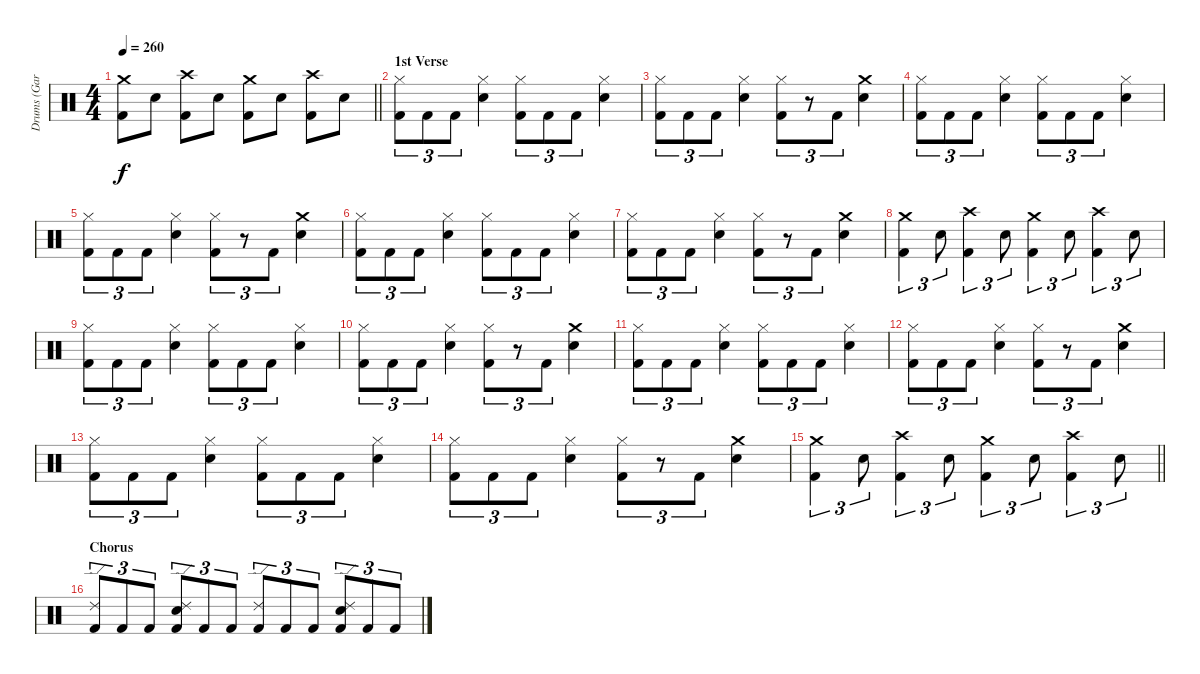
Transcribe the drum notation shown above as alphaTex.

\track ("Drums (Gar Samuelson)" "Drums (Gar") {instrument percussion}
\staff {score}
\articulation defaults
\ts (4 4)
\tempo 260
\clef neutral
\barLineRight lightlight
\ks c
("Crash medium (hit)" "Kick (hit) 2").8{dy f} "Snare (hit) 2".8 ("Crash high (hit)" "Kick (hit) 2").8 "Snare (hit) 2".8 ("Crash medium (hit)" "Kick (hit) 2").8 "Snare (hit) 2".8 ("Crash high (hit)" "Kick (hit) 2").8 "Snare (hit) 2".8 |
\section ("" "1st Verse")
("Hi-Hat (closed)" "Kick (hit) 2").8{tu (3 2)} "Kick (hit) 2".8{tu (3 2)} "Kick (hit) 2".8{tu (3 2)} ("Hi-Hat (closed)" "Snare (hit) 2").4 ("Hi-Hat (closed)" "Kick (hit) 2").8{tu (3 2)} "Kick (hit) 2".8{tu (3 2)} "Kick (hit) 2".8{tu (3 2)} ("Hi-Hat (closed)" "Snare (hit) 2").4 |
("Hi-Hat (closed)" "Kick (hit) 2").8{tu (3 2)} "Kick (hit) 2".8{tu (3 2)} "Kick (hit) 2".8{tu (3 2)} ("Hi-Hat (closed)" "Snare (hit) 2").4 ("Hi-Hat (closed)" "Kick (hit) 2").8{tu (3 2)} r.8{tu (3 2)} "Kick (hit) 2".8{tu (3 2)} ("Crash medium (hit)" "Snare (hit) 2").4 |
("Hi-Hat (closed)" "Kick (hit) 2").8{tu (3 2)} "Kick (hit) 2".8{tu (3 2)} "Kick (hit) 2".8{tu (3 2)} ("Hi-Hat (closed)" "Snare (hit) 2").4 ("Hi-Hat (closed)" "Kick (hit) 2").8{tu (3 2)} "Kick (hit) 2".8{tu (3 2)} "Kick (hit) 2".8{tu (3 2)} ("Hi-Hat (closed)" "Snare (hit) 2").4 |
("Hi-Hat (closed)" "Kick (hit) 2").8{tu (3 2)} "Kick (hit) 2".8{tu (3 2)} "Kick (hit) 2".8{tu (3 2)} ("Hi-Hat (closed)" "Snare (hit) 2").4 ("Hi-Hat (closed)" "Kick (hit) 2").8{tu (3 2)} r.8{tu (3 2)} "Kick (hit) 2".8{tu (3 2)} ("Crash medium (hit)" "Snare (hit) 2").4 |
("Hi-Hat (closed)" "Kick (hit) 2").8{tu (3 2)} "Kick (hit) 2".8{tu (3 2)} "Kick (hit) 2".8{tu (3 2)} ("Hi-Hat (closed)" "Snare (hit) 2").4 ("Hi-Hat (closed)" "Kick (hit) 2").8{tu (3 2)} "Kick (hit) 2".8{tu (3 2)} "Kick (hit) 2".8{tu (3 2)} ("Hi-Hat (closed)" "Snare (hit) 2").4 |
("Hi-Hat (closed)" "Kick (hit) 2").8{tu (3 2)} "Kick (hit) 2".8{tu (3 2)} "Kick (hit) 2".8{tu (3 2)} ("Hi-Hat (closed)" "Snare (hit) 2").4 ("Hi-Hat (closed)" "Kick (hit) 2").8{tu (3 2)} r.8{tu (3 2)} "Kick (hit) 2".8{tu (3 2)} ("Crash medium (hit)" "Snare (hit) 2").4 |
("Crash medium (hit)" "Kick (hit) 2").4{tu (3 2)} "Snare (hit) 2".8{tu (3 2)} ("Crash high (hit)" "Kick (hit) 2").4{tu (3 2)} "Snare (hit) 2".8{tu (3 2)} ("Crash medium (hit)" "Kick (hit) 2").4{tu (3 2)} "Snare (hit) 2".8{tu (3 2)} ("Crash high (hit)" "Kick (hit) 2").4{tu (3 2)} "Snare (hit) 2".8{tu (3 2)} |
("Hi-Hat (closed)" "Kick (hit) 2").8{tu (3 2)} "Kick (hit) 2".8{tu (3 2)} "Kick (hit) 2".8{tu (3 2)} ("Hi-Hat (closed)" "Snare (hit) 2").4 ("Hi-Hat (closed)" "Kick (hit) 2").8{tu (3 2)} "Kick (hit) 2".8{tu (3 2)} "Kick (hit) 2".8{tu (3 2)} ("Hi-Hat (closed)" "Snare (hit) 2").4 |
("Hi-Hat (closed)" "Kick (hit) 2").8{tu (3 2)} "Kick (hit) 2".8{tu (3 2)} "Kick (hit) 2".8{tu (3 2)} ("Hi-Hat (closed)" "Snare (hit) 2").4 ("Hi-Hat (closed)" "Kick (hit) 2").8{tu (3 2)} r.8{tu (3 2)} "Kick (hit) 2".8{tu (3 2)} ("Crash medium (hit)" "Snare (hit) 2").4 |
("Hi-Hat (closed)" "Kick (hit) 2").8{tu (3 2)} "Kick (hit) 2".8{tu (3 2)} "Kick (hit) 2".8{tu (3 2)} ("Hi-Hat (closed)" "Snare (hit) 2").4 ("Hi-Hat (closed)" "Kick (hit) 2").8{tu (3 2)} "Kick (hit) 2".8{tu (3 2)} "Kick (hit) 2".8{tu (3 2)} ("Hi-Hat (closed)" "Snare (hit) 2").4 |
("Hi-Hat (closed)" "Kick (hit) 2").8{tu (3 2)} "Kick (hit) 2".8{tu (3 2)} "Kick (hit) 2".8{tu (3 2)} ("Hi-Hat (closed)" "Snare (hit) 2").4 ("Hi-Hat (closed)" "Kick (hit) 2").8{tu (3 2)} r.8{tu (3 2)} "Kick (hit) 2".8{tu (3 2)} ("Crash medium (hit)" "Snare (hit) 2").4 |
("Hi-Hat (closed)" "Kick (hit) 2").8{tu (3 2)} "Kick (hit) 2".8{tu (3 2)} "Kick (hit) 2".8{tu (3 2)} ("Hi-Hat (closed)" "Snare (hit) 2").4 ("Hi-Hat (closed)" "Kick (hit) 2").8{tu (3 2)} "Kick (hit) 2".8{tu (3 2)} "Kick (hit) 2".8{tu (3 2)} ("Hi-Hat (closed)" "Snare (hit) 2").4 |
("Hi-Hat (closed)" "Kick (hit) 2").8{tu (3 2)} "Kick (hit) 2".8{tu (3 2)} "Kick (hit) 2".8{tu (3 2)} ("Hi-Hat (closed)" "Snare (hit) 2").4 ("Hi-Hat (closed)" "Kick (hit) 2").8{tu (3 2)} r.8{tu (3 2)} "Kick (hit) 2".8{tu (3 2)} ("Crash medium (hit)" "Snare (hit) 2").4 |
\barLineRight lightlight
("Crash medium (hit)" "Kick (hit) 2").4{tu (3 2)} "Snare (hit) 2".8{tu (3 2)} ("Crash high (hit)" "Kick (hit) 2").4{tu (3 2)} "Snare (hit) 2".8{tu (3 2)} ("Crash medium (hit)" "Kick (hit) 2").4{tu (3 2)} "Snare (hit) 2".8{tu (3 2)} ("Crash high (hit)" "Kick (hit) 2").4{tu (3 2)} "Snare (hit) 2".8{tu (3 2)} |
\section ("" "Chorus")
("Ride (edge) 2" "Kick (hit) 2").8{tu (3 2)} "Kick (hit) 2".8{tu (3 2)} "Kick (hit) 2".8{tu (3 2)} ("Ride (edge) 2" "Snare (hit) 2" "Kick (hit) 2").8{tu (3 2)} "Kick (hit) 2".8{tu (3 2)} "Kick (hit) 2".8{tu (3 2)} ("Ride (edge) 2" "Kick (hit) 2").8{tu (3 2)} "Kick (hit) 2".8{tu (3 2)} "Kick (hit) 2".8{tu (3 2)} ("Ride (edge) 2" "Snare (hit) 2" "Kick (hit) 2").8{tu (3 2)} "Kick (hit) 2".8{tu (3 2)} "Kick (hit) 2".8{tu (3 2)}
